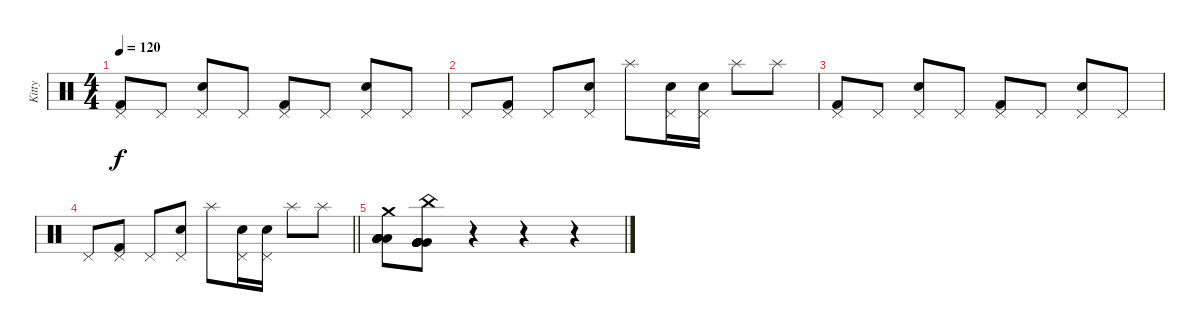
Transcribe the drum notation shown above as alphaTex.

\track ("Kitty" "Kitty") {instrument percussion}
\staff {score}
\articulation defaults
\ts (4 4)
\tempo 120
\clef neutral
\ks c
("Pedal Hi-Hat (hit)" "Kick (hit) 2").8{dy f} "Pedal Hi-Hat (hit)".8 ("Pedal Hi-Hat (hit)" "Electric Snare (hit)").8 "Pedal Hi-Hat (hit)".8 ("Pedal Hi-Hat (hit)" "Kick (hit) 2").8 "Pedal Hi-Hat (hit)".8 ("Pedal Hi-Hat (hit)" "Electric Snare (hit)").8 "Pedal Hi-Hat (hit)".8 |
"Pedal Hi-Hat (hit)".8 ("Pedal Hi-Hat (hit)" "Kick (hit) 2").8 "Pedal Hi-Hat (hit)".8 ("Pedal Hi-Hat (hit)" "Electric Snare (hit)").8 "Splash (hit)".8 ("Pedal Hi-Hat (hit)" "Electric Snare (hit)").16 ("Pedal Hi-Hat (hit)" "Electric Snare (hit)").16 "Splash (hit)".8 "Splash (hit)".8 |
("Pedal Hi-Hat (hit)" "Kick (hit) 2").8 "Pedal Hi-Hat (hit)".8 ("Pedal Hi-Hat (hit)" "Electric Snare (hit)").8 "Pedal Hi-Hat (hit)".8 ("Pedal Hi-Hat (hit)" "Kick (hit) 2").8 "Pedal Hi-Hat (hit)".8 ("Pedal Hi-Hat (hit)" "Electric Snare (hit)").8 "Pedal Hi-Hat (hit)".8 |
\barLineRight lightlight "Pedal Hi-Hat (hit)".8
("Pedal Hi-Hat (hit)" "Kick (hit) 2").8 "Pedal Hi-Hat (hit)".8 ("Pedal Hi-Hat (hit)" "Electric Snare (hit)").8 "Splash (hit)".8 ("Pedal Hi-Hat (hit)" "Electric Snare (hit)").16 ("Pedal Hi-Hat (hit)" "Electric Snare (hit)").16 "Splash (hit)".8 "Splash (hit)".8 |
("Crash medium (hit)" "Low Tom (hit)" "Low Tom (hit)" "Low Tom (hit)" "Low Tom (hit)" "Low Tom (hit)").8 ("China (hit)" "Very Low Tom (hit)" "Very Low Tom (hit)" "Very Low Tom (hit)" "Very Low Tom (hit)" "Very Low Tom (hit)").8 r.4 r.4 r.4
